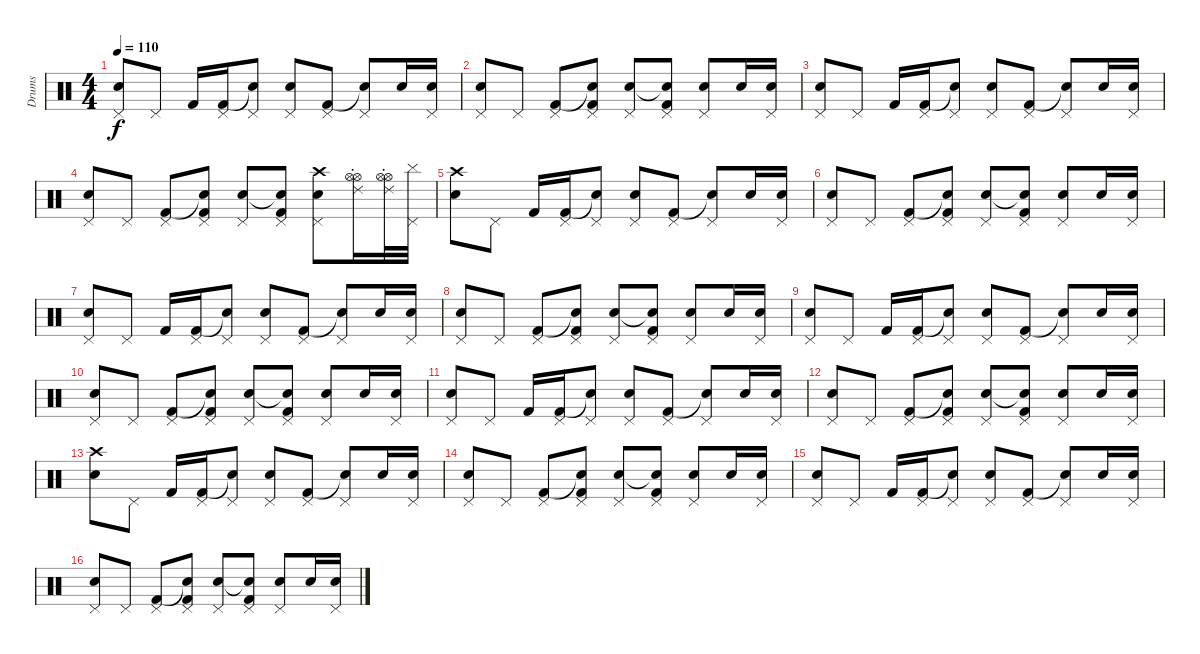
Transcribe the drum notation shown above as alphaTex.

\track ("Drums" "Drums") {instrument percussion}
\staff {score}
\articulation defaults
\ts (4 4)
\tempo 110
\clef neutral
\ks c
("Pedal Hi-Hat (hit)" "Snare (hit) 2").8{dy f} "Pedal Hi-Hat (hit)".8 "Kick (hit) 2".16 ("Pedal Hi-Hat (hit)" "Kick (hit) 2").16 ("Pedal Hi-Hat (hit)" "Snare (hit)"{t}).8 ("Pedal Hi-Hat (hit)" "Snare (hit) 2").8 ("Pedal Hi-Hat (hit)" "Kick (hit) 2").8 ("Pedal Hi-Hat (hit)" "Snare (hit)"{t}).8 "Snare (hit) 2".16 ("Pedal Hi-Hat (hit)" "Snare (hit) 2").16 |
("Pedal Hi-Hat (hit)" "Snare (hit) 2").8 "Pedal Hi-Hat (hit)".8 ("Pedal Hi-Hat (hit)" "Kick (hit) 2").8 ("Pedal Hi-Hat (hit)" "Snare (hit)"{t} "Kick (hit) 2").8 ("Pedal Hi-Hat (hit)" "Snare (hit) 2").8 ("Pedal Hi-Hat (hit)" "Snare (hit)"{t} "Kick (hit) 2").8 ("Pedal Hi-Hat (hit)" "Snare (hit) 2").8 "Snare (hit) 2".16 ("Pedal Hi-Hat (hit)" "Snare (hit) 2").16 |
("Pedal Hi-Hat (hit)" "Snare (hit) 2").8 "Pedal Hi-Hat (hit)".8 "Kick (hit) 2".16 ("Pedal Hi-Hat (hit)" "Kick (hit) 2").16 ("Pedal Hi-Hat (hit)" "Snare (hit)"{t}).8 ("Pedal Hi-Hat (hit)" "Snare (hit) 2").8 ("Pedal Hi-Hat (hit)" "Kick (hit) 2").8 ("Pedal Hi-Hat (hit)" "Snare (hit)"{t}).8 "Snare (hit) 2".16 ("Pedal Hi-Hat (hit)" "Snare (hit) 2").16 |
("Pedal Hi-Hat (hit)" "Snare (hit) 2").8 "Pedal Hi-Hat (hit)".8 ("Pedal Hi-Hat (hit)" "Kick (hit) 2").8 ("Pedal Hi-Hat (hit)" "Snare (hit)"{t} "Kick (hit) 2").8 ("Pedal Hi-Hat (hit)" "Snare (hit) 2").8 ("Pedal Hi-Hat (hit)" "Snare (hit)"{t} "Kick (hit) 2").8 ("Pedal Hi-Hat (hit)" "Snare (hit) 2" "Crash high (hit)").8 ("Ride (choke) 2" "Hi-Hat (open)" "Hi-Hat (open)").16 ("Ride (choke) 2" "Hi-Hat (open)" "Hi-Hat (open)").32 ("Pedal Hi-Hat (hit)" "Cymbal (hit)").32 |
("Snare (hit) 2" "Crash high (hit)").8 "Pedal Hi-Hat (hit)".8 "Kick (hit) 2".16 ("Pedal Hi-Hat (hit)" "Kick (hit) 2").16 ("Pedal Hi-Hat (hit)" "Snare (hit)"{t}).8 ("Pedal Hi-Hat (hit)" "Snare (hit) 2").8 ("Pedal Hi-Hat (hit)" "Kick (hit) 2").8 ("Pedal Hi-Hat (hit)" "Snare (hit)"{t}).8 "Snare (hit) 2".16 ("Pedal Hi-Hat (hit)" "Snare (hit) 2").16 |
("Pedal Hi-Hat (hit)" "Snare (hit) 2").8 "Pedal Hi-Hat (hit)".8 ("Pedal Hi-Hat (hit)" "Kick (hit) 2").8 ("Pedal Hi-Hat (hit)" "Snare (hit)"{t} "Kick (hit) 2").8 ("Pedal Hi-Hat (hit)" "Snare (hit) 2").8 ("Pedal Hi-Hat (hit)" "Snare (hit)"{t} "Kick (hit) 2").8 ("Pedal Hi-Hat (hit)" "Snare (hit) 2").8 "Snare (hit) 2".16 ("Pedal Hi-Hat (hit)" "Snare (hit) 2").16 |
("Pedal Hi-Hat (hit)" "Snare (hit) 2").8 "Pedal Hi-Hat (hit)".8 "Kick (hit) 2".16 ("Pedal Hi-Hat (hit)" "Kick (hit) 2").16 ("Pedal Hi-Hat (hit)" "Snare (hit)"{t}).8 ("Pedal Hi-Hat (hit)" "Snare (hit) 2").8 ("Pedal Hi-Hat (hit)" "Kick (hit) 2").8 ("Pedal Hi-Hat (hit)" "Snare (hit)"{t}).8 "Snare (hit) 2".16 ("Pedal Hi-Hat (hit)" "Snare (hit) 2").16 |
("Pedal Hi-Hat (hit)" "Snare (hit) 2").8 "Pedal Hi-Hat (hit)".8 ("Pedal Hi-Hat (hit)" "Kick (hit) 2").8 ("Pedal Hi-Hat (hit)" "Snare (hit)"{t} "Kick (hit) 2").8 ("Pedal Hi-Hat (hit)" "Snare (hit) 2").8 ("Pedal Hi-Hat (hit)" "Snare (hit)"{t} "Kick (hit) 2").8 ("Pedal Hi-Hat (hit)" "Snare (hit) 2").8 "Snare (hit) 2".16 ("Pedal Hi-Hat (hit)" "Snare (hit) 2").16 |
("Pedal Hi-Hat (hit)" "Snare (hit) 2").8 "Pedal Hi-Hat (hit)".8 "Kick (hit) 2".16 ("Pedal Hi-Hat (hit)" "Kick (hit) 2").16 ("Pedal Hi-Hat (hit)" "Snare (hit)"{t}).8 ("Pedal Hi-Hat (hit)" "Snare (hit) 2").8 ("Pedal Hi-Hat (hit)" "Kick (hit) 2").8 ("Pedal Hi-Hat (hit)" "Snare (hit)"{t}).8 "Snare (hit) 2".16 ("Pedal Hi-Hat (hit)" "Snare (hit) 2").16 |
("Pedal Hi-Hat (hit)" "Snare (hit) 2").8 "Pedal Hi-Hat (hit)".8 ("Pedal Hi-Hat (hit)" "Kick (hit) 2").8 ("Pedal Hi-Hat (hit)" "Snare (hit)"{t} "Kick (hit) 2").8 ("Pedal Hi-Hat (hit)" "Snare (hit) 2").8 ("Pedal Hi-Hat (hit)" "Snare (hit)"{t} "Kick (hit) 2").8 ("Pedal Hi-Hat (hit)" "Snare (hit) 2").8 "Snare (hit) 2".16 ("Pedal Hi-Hat (hit)" "Snare (hit) 2").16 |
("Pedal Hi-Hat (hit)" "Snare (hit) 2").8 "Pedal Hi-Hat (hit)".8 "Kick (hit) 2".16 ("Pedal Hi-Hat (hit)" "Kick (hit) 2").16 ("Pedal Hi-Hat (hit)" "Snare (hit)"{t}).8 ("Pedal Hi-Hat (hit)" "Snare (hit) 2").8 ("Pedal Hi-Hat (hit)" "Kick (hit) 2").8 ("Pedal Hi-Hat (hit)" "Snare (hit)"{t}).8 "Snare (hit) 2".16 ("Pedal Hi-Hat (hit)" "Snare (hit) 2").16 |
("Pedal Hi-Hat (hit)" "Snare (hit) 2").8 "Pedal Hi-Hat (hit)".8 ("Pedal Hi-Hat (hit)" "Kick (hit) 2").8 ("Pedal Hi-Hat (hit)" "Snare (hit)"{t} "Kick (hit) 2").8 ("Pedal Hi-Hat (hit)" "Snare (hit) 2").8 ("Pedal Hi-Hat (hit)" "Snare (hit)"{t} "Kick (hit) 2").8 ("Pedal Hi-Hat (hit)" "Snare (hit) 2").8 "Snare (hit) 2".16 ("Pedal Hi-Hat (hit)" "Snare (hit) 2").16 |
("Snare (hit) 2" "Crash high (hit)").8 "Pedal Hi-Hat (hit)".8 "Kick (hit) 2".16 ("Pedal Hi-Hat (hit)" "Kick (hit) 2").16 ("Pedal Hi-Hat (hit)" "Snare (hit)"{t}).8 ("Pedal Hi-Hat (hit)" "Snare (hit) 2").8 ("Pedal Hi-Hat (hit)" "Kick (hit) 2").8 ("Pedal Hi-Hat (hit)" "Snare (hit)"{t}).8 "Snare (hit) 2".16 ("Pedal Hi-Hat (hit)" "Snare (hit) 2").16 |
("Pedal Hi-Hat (hit)" "Snare (hit) 2").8 "Pedal Hi-Hat (hit)".8 ("Pedal Hi-Hat (hit)" "Kick (hit) 2").8 ("Pedal Hi-Hat (hit)" "Snare (hit)"{t} "Kick (hit) 2").8 ("Pedal Hi-Hat (hit)" "Snare (hit) 2").8 ("Pedal Hi-Hat (hit)" "Snare (hit)"{t} "Kick (hit) 2").8 ("Pedal Hi-Hat (hit)" "Snare (hit) 2").8 "Snare (hit) 2".16 ("Pedal Hi-Hat (hit)" "Snare (hit) 2").16 |
("Pedal Hi-Hat (hit)" "Snare (hit) 2").8 "Pedal Hi-Hat (hit)".8 "Kick (hit) 2".16 ("Pedal Hi-Hat (hit)" "Kick (hit) 2").16 ("Pedal Hi-Hat (hit)" "Snare (hit)"{t}).8 ("Pedal Hi-Hat (hit)" "Snare (hit) 2").8 ("Pedal Hi-Hat (hit)" "Kick (hit) 2").8 ("Pedal Hi-Hat (hit)" "Snare (hit)"{t}).8 "Snare (hit) 2".16 ("Pedal Hi-Hat (hit)" "Snare (hit) 2").16 |
("Pedal Hi-Hat (hit)" "Snare (hit) 2").8 "Pedal Hi-Hat (hit)".8 ("Pedal Hi-Hat (hit)" "Kick (hit) 2").8 ("Pedal Hi-Hat (hit)" "Snare (hit)"{t} "Kick (hit) 2").8 ("Pedal Hi-Hat (hit)" "Snare (hit) 2").8 ("Pedal Hi-Hat (hit)" "Snare (hit)"{t} "Kick (hit) 2").8 ("Pedal Hi-Hat (hit)" "Snare (hit) 2").8 "Snare (hit) 2".16 ("Pedal Hi-Hat (hit)" "Snare (hit) 2").16
